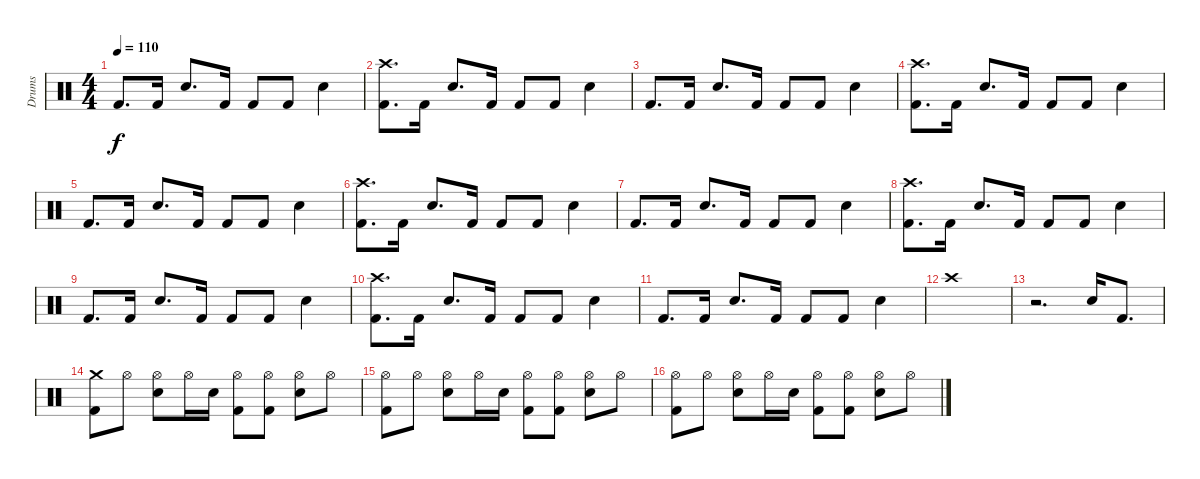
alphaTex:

\track ("Drums" "Drums") {instrument percussion}
\staff {score}
\articulation defaults
\ts (4 4)
\tempo 110
\clef neutral
\ks c "Kick (hit) 2".8{d dy f} "Kick (hit) 2".16 "Snare (hit) 2".8{d} "Kick (hit) 2".16 "Kick (hit) 2".8 "Kick (hit) 2".8 "Snare (hit) 2".4
|
("Crash high (hit)" "Kick (hit) 2").8{d} "Kick (hit) 2".16 "Snare (hit) 2".8{d} "Kick (hit) 2".16 "Kick (hit) 2".8 "Kick (hit) 2".8 "Snare (hit) 2".4 |
"Kick (hit) 2".8{d} "Kick (hit) 2".16 "Snare (hit) 2".8{d} "Kick (hit) 2".16 "Kick (hit) 2".8 "Kick (hit) 2".8 "Snare (hit) 2".4 |
("Crash high (hit)" "Kick (hit) 2").8{d} "Kick (hit) 2".16 "Snare (hit) 2".8{d} "Kick (hit) 2".16 "Kick (hit) 2".8 "Kick (hit) 2".8 "Snare (hit) 2".4 |
"Kick (hit) 2".8{d} "Kick (hit) 2".16 "Snare (hit) 2".8{d} "Kick (hit) 2".16 "Kick (hit) 2".8 "Kick (hit) 2".8 "Snare (hit) 2".4 |
("Crash high (hit)" "Kick (hit) 2").8{d} "Kick (hit) 2".16 "Snare (hit) 2".8{d} "Kick (hit) 2".16 "Kick (hit) 2".8 "Kick (hit) 2".8 "Snare (hit) 2".4 |
"Kick (hit) 2".8{d} "Kick (hit) 2".16 "Snare (hit) 2".8{d} "Kick (hit) 2".16 "Kick (hit) 2".8 "Kick (hit) 2".8 "Snare (hit) 2".4 |
("Crash high (hit)" "Kick (hit) 2").8{d} "Kick (hit) 2".16 "Snare (hit) 2".8{d} "Kick (hit) 2".16 "Kick (hit) 2".8 "Kick (hit) 2".8 "Snare (hit) 2".4 |
"Kick (hit) 2".8{d} "Kick (hit) 2".16 "Snare (hit) 2".8{d} "Kick (hit) 2".16 "Kick (hit) 2".8 "Kick (hit) 2".8 "Snare (hit) 2".4 |
("Crash high (hit)" "Kick (hit) 2").8{d} "Kick (hit) 2".16 "Snare (hit) 2".8{d} "Kick (hit) 2".16 "Kick (hit) 2".8 "Kick (hit) 2".8 "Snare (hit) 2".4 |
"Kick (hit) 2".8{d} "Kick (hit) 2".16 "Snare (hit) 2".8{d} "Kick (hit) 2".16 "Kick (hit) 2".8 "Kick (hit) 2".8 "Snare (hit) 2".4 |
"Crash high (hit)".1 |
r.2{d} "Snare (hit) 2".16 "Kick (hit) 2".8{d} |
("Crash medium (hit)" "Kick (hit) 2").8 "Hi-Hat (open)".8 ("Hi-Hat (open)" "Snare (hit) 2").8 "Hi-Hat (open)".16 "Electric Snare (hit)".16 ("Hi-Hat (open)" "Kick (hit) 2").8 ("Hi-Hat (open)" "Kick (hit) 2").8 ("Hi-Hat (open)" "Snare (hit) 2").8 "Hi-Hat (open)".8 |
("Hi-Hat (open)" "Kick (hit) 2").8 "Hi-Hat (open)".8 ("Hi-Hat (open)" "Snare (hit) 2").8 "Hi-Hat (open)".16 "Electric Snare (hit)".16 ("Hi-Hat (open)" "Kick (hit) 2").8 ("Hi-Hat (open)" "Kick (hit) 2").8 ("Hi-Hat (open)" "Snare (hit) 2").8 "Hi-Hat (open)".8 |
("Hi-Hat (open)" "Kick (hit) 2").8 "Hi-Hat (open)".8 ("Hi-Hat (open)" "Snare (hit) 2").8 "Hi-Hat (open)".16 "Electric Snare (hit)".16 ("Hi-Hat (open)" "Kick (hit) 2").8 ("Hi-Hat (open)" "Kick (hit) 2").8 ("Hi-Hat (open)" "Snare (hit) 2").8 "Hi-Hat (open)".8
